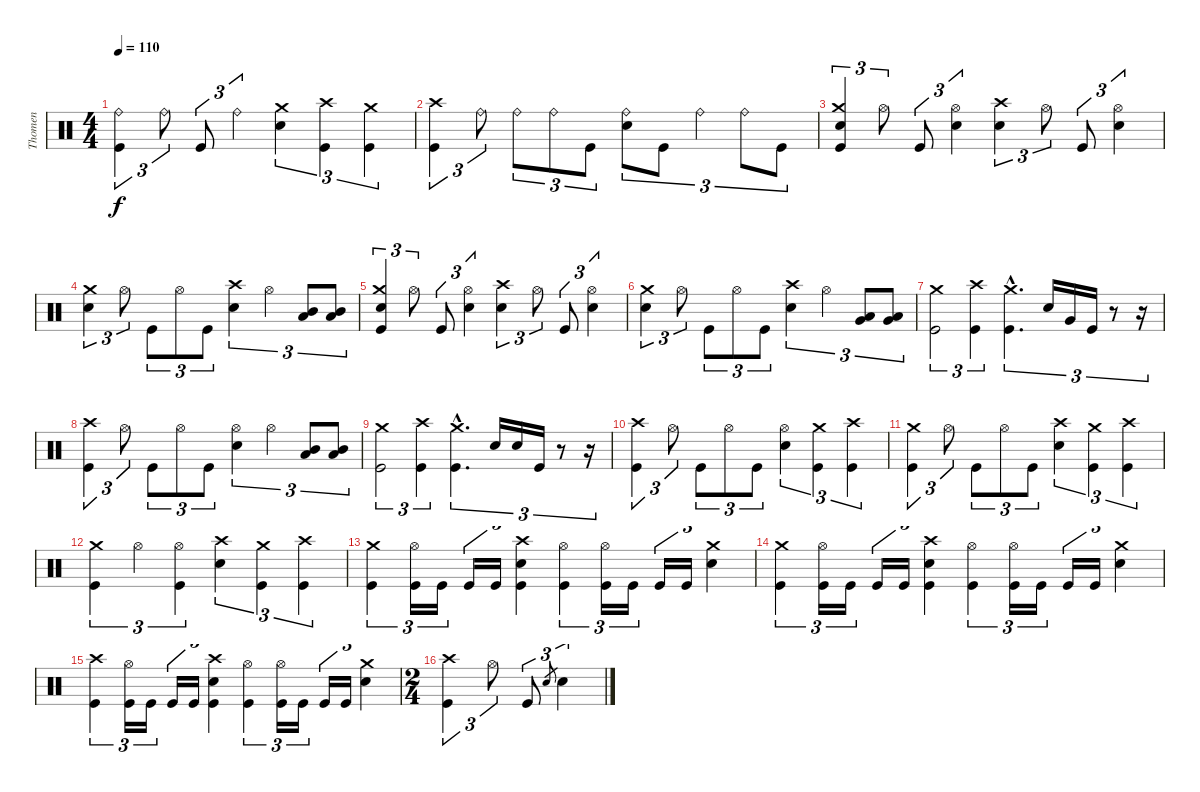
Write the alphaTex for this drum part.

\track ("Thomen" "Thomen") {instrument percussion}
\staff {score}
\articulation defaults
\ts (4 4)
\tempo 110
\clef neutral
\ks c
("Ride (bell)" "Kick (hit)").4{tu (3 2) dy f} "Ride (bell)".8{tu (3 2)} "Kick (hit)".8{tu (3 2)} "Ride (bell)".4{tu (3 2)} ("Crash medium (hit)" "Snare (hit) 2").4{tu (3 2)} ("Crash high (hit)" "Kick (hit)").4{tu (3 2)} ("Crash medium (hit)" "Kick (hit)").4{tu (3 2)} |
("Crash high (hit)" "Kick (hit)").4{tu (3 2)} "Ride (bell)".8{tu (3 2)} "Ride (bell)".8{tu (3 2)} "Ride (bell)".8{tu (3 2)} "Kick (hit)".8{tu (3 2)} ("Ride (bell)" "Snare (hit) 2").8{tu (3 2)} "Kick (hit)".8{tu (3 2)} "Ride (bell)".4{tu (3 2)} "Ride (bell)".8{tu (3 2)} "Kick (hit)".8{tu (3 2)} |
("Crash medium (hit)" "Snare (hit) 2" "Kick (hit)").4{tu (3 2)} "Hi-Hat (open)".8{tu (3 2)} "Kick (hit)".8{tu (3 2)} ("Hi-Hat (open)" "Snare (hit) 2").4{tu (3 2)} ("Crash high (hit)" "Snare (hit) 2").4{tu (3 2)} "Hi-Hat (open)".8{tu (3 2)} "Kick (hit)".8{tu (3 2)} ("Hi-Hat (open)" "Snare (hit) 2").4{tu (3 2)} |
("Crash medium (hit)" "Snare (hit) 2").4{tu (3 2)} "Hi-Hat (open)".8{tu (3 2)} "Kick (hit)".8{tu (3 2)} "Hi-Hat (open)".8{tu (3 2)} "Kick (hit)".8{tu (3 2)} ("Crash high (hit)" "Snare (hit) 2").4{tu (3 2)} "Hi-Hat (open)".4{tu (3 2)} ("Mid Tom (hit)" "Low Tom (hit)").8{tu (3 2)} ("Mid Tom (hit)" "Low Tom (hit)").8{tu (3 2)} |
("Crash medium (hit)" "Snare (hit) 2" "Kick (hit)").4{tu (3 2)} "Hi-Hat (open)".8{tu (3 2)} "Kick (hit)".8{tu (3 2)} ("Hi-Hat (open)" "Snare (hit) 2").4{tu (3 2)} ("Crash high (hit)" "Snare (hit) 2").4{tu (3 2)} "Hi-Hat (open)".8{tu (3 2)} "Kick (hit)".8{tu (3 2)} ("Hi-Hat (open)" "Snare (hit) 2").4{tu (3 2)} |
("Crash medium (hit)" "Snare (hit) 2").4{tu (3 2)} "Hi-Hat (open)".8{tu (3 2)} "Kick (hit)".8{tu (3 2)} "Hi-Hat (open)".8{tu (3 2)} "Kick (hit)".8{tu (3 2)} ("Crash high (hit)" "Snare (hit) 2").4{tu (3 2)} "Hi-Hat (open)".4{tu (3 2)} ("Very Low Tom (hit)" "Low Floor Tom (hit)").8{tu (3 2)} ("Very Low Tom (hit)" "Low Floor Tom (hit)").8{tu (3 2)} |
("Crash medium (hit)" "Kick (hit)").2{tu (3 2)} ("Crash high (hit)" "Kick (hit)").4{tu (3 2)} ("Crash medium (hit)"{hac} "Kick (hit)"{hac}).4{d tu (3 2)} "Snare (hit) 2".16{tu (3 2)} "Very Low Tom (hit)".16{tu (3 2)} "Kick (hit)".16{tu (3 2)} r.8{tu (3 2)} r.16{tu (3 2)} |
("Crash high (hit)" "Kick (hit)").4{tu (3 2)} "Hi-Hat (open)".8{tu (3 2)} "Kick (hit)".8{tu (3 2)} "Hi-Hat (open)".8{tu (3 2)} "Kick (hit)".8{tu (3 2)} ("Hi-Hat (open)" "Snare (hit) 2").4{tu (3 2)} "Hi-Hat (open)".4{tu (3 2)} ("Low Tom (hit)" "Mid Tom (hit)").8{tu (3 2)} ("Low Tom (hit)" "Mid Tom (hit)").8{tu (3 2)} |
("Crash medium (hit)" "Kick (hit)").2{tu (3 2)} ("Crash high (hit)" "Kick (hit)").4{tu (3 2)} ("Crash medium (hit)"{hac} "Kick (hit)"{hac}).4{d tu (3 2)} "Snare (hit) 2".16{tu (3 2)} "Snare (hit) 2".16{tu (3 2)} "Kick (hit)".16{tu (3 2)} r.8{tu (3 2)} r.16{tu (3 2)} |
("Crash high (hit)" "Kick (hit)").4{tu (3 2)} "Hi-Hat (open)".8{tu (3 2)} "Kick (hit)".8{tu (3 2)} "Hi-Hat (open)".8{tu (3 2)} "Kick (hit)".8{tu (3 2)} ("Hi-Hat (open)" "Snare (hit) 2").4{tu (3 2)} ("Crash medium (hit)" "Kick (hit)").4{tu (3 2)} ("Crash high (hit)" "Kick (hit)").4{tu (3 2)} |
("Crash medium (hit)" "Kick (hit)").4{tu (3 2)} "Hi-Hat (open)".8{tu (3 2)} "Kick (hit)".8{tu (3 2)} "Hi-Hat (open)".8{tu (3 2)} "Kick (hit)".8{tu (3 2)} ("Crash high (hit)" "Snare (hit) 2").4{tu (3 2)} ("Crash medium (hit)" "Kick (hit)").4{tu (3 2)} ("Crash high (hit)" "Kick (hit)").4{tu (3 2)} |
("Crash medium (hit)" "Kick (hit)").4{tu (3 2)} "Hi-Hat (open)".4{tu (3 2)} ("Hi-Hat (open)" "Kick (hit)").4{tu (3 2)} ("Crash high (hit)" "Snare (hit) 2").4{tu (3 2)} ("Crash medium (hit)" "Kick (hit)").4{tu (3 2)} ("Crash high (hit)" "Kick (hit)").4{tu (3 2)} |
("Crash medium (hit)" "Kick (hit)").4{tu (3 2)} ("Hi-Hat (open)" "Kick (hit)").16{tu (3 2)} "Kick (hit)".16{tu (3 2)} "Kick (hit)".16{tu (3 2)} "Kick (hit)".16{tu (3 2)} ("Crash high (hit)" "Snare (hit) 2" "Kick (hit)").4{tu (3 2)} ("Hi-Hat (open)" "Kick (hit)").4{tu (3 2)} ("Hi-Hat (open)" "Kick (hit)").16{tu (3 2)} "Kick (hit)".16{tu (3 2)} "Kick (hit)".16{tu (3 2)} "Kick (hit)".16{tu (3 2)} ("Crash medium (hit)" "Snare (hit) 2").4{tu (3 2)} |
("Crash medium (hit)" "Kick (hit)").4{tu (3 2)} ("Hi-Hat (open)" "Kick (hit)").16{tu (3 2)} "Kick (hit)".16{tu (3 2)} "Kick (hit)".16{tu (3 2)} "Kick (hit)".16{tu (3 2)} ("Crash high (hit)" "Snare (hit) 2" "Kick (hit)").4{tu (3 2)} ("Hi-Hat (open)" "Kick (hit)").4{tu (3 2)} ("Hi-Hat (open)" "Kick (hit)").16{tu (3 2)} "Kick (hit)".16{tu (3 2)} "Kick (hit)".16{tu (3 2)} "Kick (hit)".16{tu (3 2)} ("Crash medium (hit)" "Snare (hit) 2").4{tu (3 2)} |
("Crash high (hit)" "Kick (hit)").4{tu (3 2)} ("Hi-Hat (open)" "Kick (hit)").16{tu (3 2)} "Kick (hit)".16{tu (3 2)} "Kick (hit)".16{tu (3 2)} "Kick (hit)".16{tu (3 2)} ("Crash high (hit)" "Snare (hit) 2" "Kick (hit)").4{tu (3 2)} ("Hi-Hat (open)" "Kick (hit)").4{tu (3 2)} ("Hi-Hat (open)" "Kick (hit)").16{tu (3 2)} "Kick (hit)".16{tu (3 2)} "Kick (hit)".16{tu (3 2)} "Kick (hit)".16{tu (3 2)} ("Crash medium (hit)" "Snare (hit) 2").4{tu (3 2)} |
\ts (2 4)
("Crash high (hit)" "Kick (hit)").4{tu (3 2)} "Hi-Hat (open)".8{tu (3 2)} "Kick (hit)".8{tu (3 2)} "Snare (hit) 2".8{gr} "Snare (hit) 2".4{tu (3 2)}
